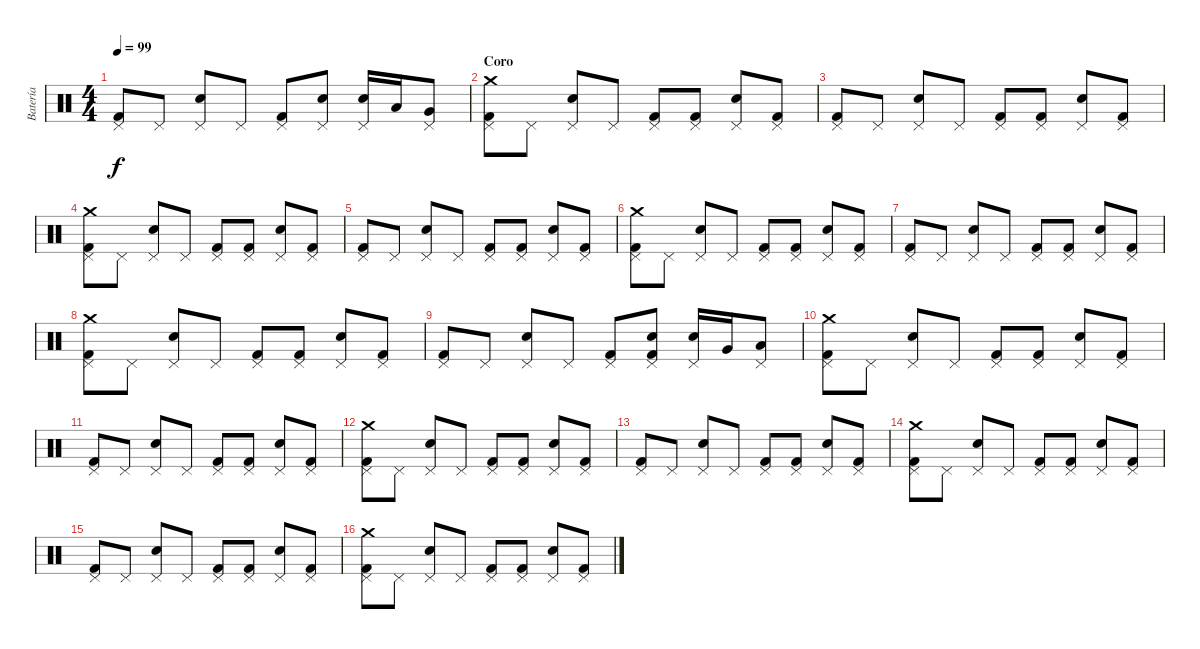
\track ("Batería" "Batería") {instrument percussion}
\staff {score}
\articulation defaults
\ts (4 4)
\tempo 99
\clef neutral
\ks c
("Kick (hit) 2" "Pedal Hi-Hat (hit)").8{dy f} "Pedal Hi-Hat (hit)".8 ("Snare (hit) 2" "Pedal Hi-Hat (hit)").8 "Pedal Hi-Hat (hit)".8 ("Kick (hit) 2" "Pedal Hi-Hat (hit)").8 ("Snare (hit) 2" "Pedal Hi-Hat (hit)").8 ("Snare (hit) 2" "Pedal Hi-Hat (hit)").16 "Low Tom (hit)".16 ("Very Low Tom (hit)" "Pedal Hi-Hat (hit)").8 |
\section ("" "Coro")
("Kick (hit) 2" "Crash medium (hit)" "Pedal Hi-Hat (hit)").8 "Pedal Hi-Hat (hit)".8 ("Snare (hit) 2" "Pedal Hi-Hat (hit)").8 "Pedal Hi-Hat (hit)".8 ("Kick (hit) 2" "Pedal Hi-Hat (hit)").8 ("Kick (hit) 2" "Pedal Hi-Hat (hit)").8 ("Snare (hit) 2" "Pedal Hi-Hat (hit)").8 ("Kick (hit) 2" "Pedal Hi-Hat (hit)").8 |
("Kick (hit) 2" "Pedal Hi-Hat (hit)").8 "Pedal Hi-Hat (hit)".8 ("Snare (hit) 2" "Pedal Hi-Hat (hit)").8 "Pedal Hi-Hat (hit)".8 ("Kick (hit) 2" "Pedal Hi-Hat (hit)").8 ("Kick (hit) 2" "Pedal Hi-Hat (hit)").8 ("Snare (hit) 2" "Pedal Hi-Hat (hit)").8 ("Kick (hit) 2" "Pedal Hi-Hat (hit)").8 |
("Kick (hit) 2" "Crash medium (hit)" "Pedal Hi-Hat (hit)").8 "Pedal Hi-Hat (hit)".8 ("Snare (hit) 2" "Pedal Hi-Hat (hit)").8 "Pedal Hi-Hat (hit)".8 ("Kick (hit) 2" "Pedal Hi-Hat (hit)").8 ("Kick (hit) 2" "Pedal Hi-Hat (hit)").8 ("Snare (hit) 2" "Pedal Hi-Hat (hit)").8 ("Kick (hit) 2" "Pedal Hi-Hat (hit)").8 |
("Pedal Hi-Hat (hit)" "Kick (hit) 2").8 "Pedal Hi-Hat (hit)".8 ("Pedal Hi-Hat (hit)" "Snare (hit) 2").8 "Pedal Hi-Hat (hit)".8 ("Pedal Hi-Hat (hit)" "Kick (hit) 2").8 ("Pedal Hi-Hat (hit)" "Kick (hit) 2").8 ("Pedal Hi-Hat (hit)" "Snare (hit) 2").8 ("Pedal Hi-Hat (hit)" "Kick (hit) 2").8 |
("Crash medium (hit)" "Pedal Hi-Hat (hit)" "Kick (hit) 2").8 "Pedal Hi-Hat (hit)".8 ("Pedal Hi-Hat (hit)" "Snare (hit) 2").8 "Pedal Hi-Hat (hit)".8 ("Pedal Hi-Hat (hit)" "Kick (hit) 2").8 ("Pedal Hi-Hat (hit)" "Kick (hit) 2").8 ("Pedal Hi-Hat (hit)" "Snare (hit) 2").8 ("Pedal Hi-Hat (hit)" "Kick (hit) 2").8 |
("Pedal Hi-Hat (hit)" "Kick (hit) 2").8 "Pedal Hi-Hat (hit)".8 ("Pedal Hi-Hat (hit)" "Snare (hit) 2").8 "Pedal Hi-Hat (hit)".8 ("Pedal Hi-Hat (hit)" "Kick (hit) 2").8 ("Pedal Hi-Hat (hit)" "Kick (hit) 2").8 ("Pedal Hi-Hat (hit)" "Snare (hit) 2").8 ("Pedal Hi-Hat (hit)" "Kick (hit) 2").8 |
("Pedal Hi-Hat (hit)" "Crash medium (hit)" "Kick (hit) 2").8 "Pedal Hi-Hat (hit)".8 ("Pedal Hi-Hat (hit)" "Snare (hit) 2").8 "Pedal Hi-Hat (hit)".8 ("Pedal Hi-Hat (hit)" "Kick (hit) 2").8 ("Pedal Hi-Hat (hit)" "Kick (hit) 2").8 ("Pedal Hi-Hat (hit)" "Snare (hit) 2").8 ("Pedal Hi-Hat (hit)" "Kick (hit) 2").8 |
("Pedal Hi-Hat (hit)" "Kick (hit) 2").8 "Pedal Hi-Hat (hit)".8 ("Pedal Hi-Hat (hit)" "Snare (hit) 2").8 "Pedal Hi-Hat (hit)".8 ("Pedal Hi-Hat (hit)" "Kick (hit) 2").8 ("Pedal Hi-Hat (hit)" "Snare (hit) 2" "Kick (hit) 2").8 ("Pedal Hi-Hat (hit)" "Snare (hit) 2").16 "Very Low Tom (hit)".16 ("Low Floor Tom (hit)" "Pedal Hi-Hat (hit)").8 |
("Crash medium (hit)" "Pedal Hi-Hat (hit)" "Kick (hit) 2").8 "Pedal Hi-Hat (hit)".8 ("Pedal Hi-Hat (hit)" "Snare (hit) 2").8 "Pedal Hi-Hat (hit)".8 ("Pedal Hi-Hat (hit)" "Kick (hit) 2").8 ("Pedal Hi-Hat (hit)" "Kick (hit) 2").8 ("Pedal Hi-Hat (hit)" "Snare (hit) 2").8 ("Pedal Hi-Hat (hit)" "Kick (hit) 2").8 |
("Pedal Hi-Hat (hit)" "Kick (hit) 2").8 "Pedal Hi-Hat (hit)".8 ("Pedal Hi-Hat (hit)" "Snare (hit) 2").8 "Pedal Hi-Hat (hit)".8 ("Pedal Hi-Hat (hit)" "Kick (hit) 2").8 ("Pedal Hi-Hat (hit)" "Kick (hit) 2").8 ("Pedal Hi-Hat (hit)" "Snare (hit) 2").8 ("Pedal Hi-Hat (hit)" "Kick (hit) 2").8 |
("Kick (hit) 2" "Crash medium (hit)" "Pedal Hi-Hat (hit)").8 "Pedal Hi-Hat (hit)".8 ("Snare (hit) 2" "Pedal Hi-Hat (hit)").8 "Pedal Hi-Hat (hit)".8 ("Kick (hit) 2" "Pedal Hi-Hat (hit)").8 ("Kick (hit) 2" "Pedal Hi-Hat (hit)").8 ("Snare (hit) 2" "Pedal Hi-Hat (hit)").8 ("Kick (hit) 2" "Pedal Hi-Hat (hit)").8 |
("Pedal Hi-Hat (hit)" "Kick (hit) 2").8 "Pedal Hi-Hat (hit)".8 ("Pedal Hi-Hat (hit)" "Snare (hit) 2").8 "Pedal Hi-Hat (hit)".8 ("Pedal Hi-Hat (hit)" "Kick (hit) 2").8 ("Pedal Hi-Hat (hit)" "Kick (hit) 2").8 ("Pedal Hi-Hat (hit)" "Snare (hit) 2").8 ("Pedal Hi-Hat (hit)" "Kick (hit) 2").8 |
("Kick (hit) 2" "Crash medium (hit)" "Pedal Hi-Hat (hit)").8 "Pedal Hi-Hat (hit)".8 ("Snare (hit) 2" "Pedal Hi-Hat (hit)").8 "Pedal Hi-Hat (hit)".8 ("Kick (hit) 2" "Pedal Hi-Hat (hit)").8 ("Kick (hit) 2" "Pedal Hi-Hat (hit)").8 ("Snare (hit) 2" "Pedal Hi-Hat (hit)").8 ("Kick (hit) 2" "Pedal Hi-Hat (hit)").8 |
("Kick (hit) 2" "Pedal Hi-Hat (hit)").8 "Pedal Hi-Hat (hit)".8 ("Snare (hit) 2" "Pedal Hi-Hat (hit)").8 "Pedal Hi-Hat (hit)".8 ("Kick (hit) 2" "Pedal Hi-Hat (hit)").8 ("Kick (hit) 2" "Pedal Hi-Hat (hit)").8 ("Snare (hit) 2" "Pedal Hi-Hat (hit)").8 ("Kick (hit) 2" "Pedal Hi-Hat (hit)").8 |
("Crash medium (hit)" "Kick (hit) 2" "Pedal Hi-Hat (hit)").8 "Pedal Hi-Hat (hit)".8 ("Snare (hit) 2" "Pedal Hi-Hat (hit)").8 "Pedal Hi-Hat (hit)".8 ("Kick (hit) 2" "Pedal Hi-Hat (hit)").8 ("Kick (hit) 2" "Pedal Hi-Hat (hit)").8 ("Snare (hit) 2" "Pedal Hi-Hat (hit)").8 ("Kick (hit) 2" "Pedal Hi-Hat (hit)").8
